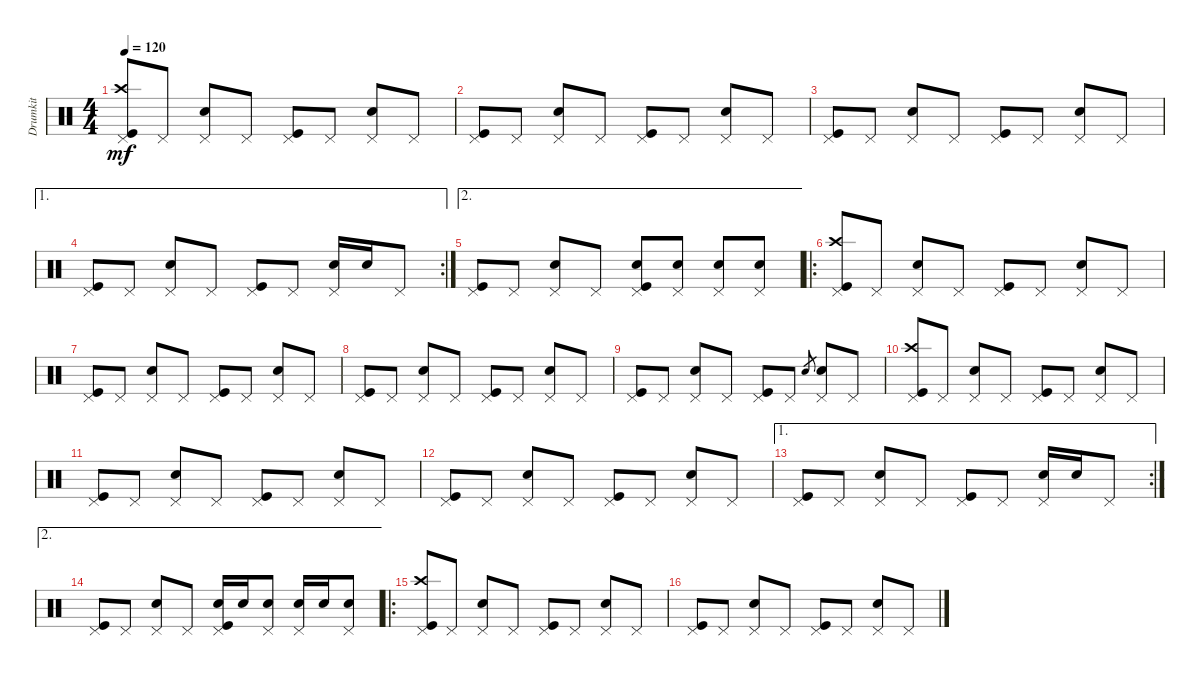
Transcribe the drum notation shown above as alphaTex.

\track ("Drumkit" "Drumkit") {instrument percussion}
\staff {score}
\articulation defaults
\ts (4 4)
\tempo 120
\clef neutral
\ks c
("Kick (hit)" "Crash high (hit)" "Pedal Hi-Hat (hit)").8{dy mf} "Pedal Hi-Hat (hit)".8 ("Pedal Hi-Hat (hit)" "Snare (hit) 2").8 "Pedal Hi-Hat (hit)".8 ("Kick (hit)" "Pedal Hi-Hat (hit)").8 "Pedal Hi-Hat (hit)".8 ("Pedal Hi-Hat (hit)" "Snare (hit) 2").8 "Pedal Hi-Hat (hit)".8 |
("Kick (hit)" "Pedal Hi-Hat (hit)").8 "Pedal Hi-Hat (hit)".8 ("Pedal Hi-Hat (hit)" "Snare (hit) 2").8 "Pedal Hi-Hat (hit)".8 ("Kick (hit)" "Pedal Hi-Hat (hit)").8 "Pedal Hi-Hat (hit)".8 ("Pedal Hi-Hat (hit)" "Snare (hit) 2").8 "Pedal Hi-Hat (hit)".8 |
("Kick (hit)" "Pedal Hi-Hat (hit)").8 "Pedal Hi-Hat (hit)".8 ("Pedal Hi-Hat (hit)" "Snare (hit) 2").8 "Pedal Hi-Hat (hit)".8 ("Kick (hit)" "Pedal Hi-Hat (hit)").8 "Pedal Hi-Hat (hit)".8 ("Pedal Hi-Hat (hit)" "Snare (hit) 2").8 "Pedal Hi-Hat (hit)".8 |
\ae 1
\rc 2
("Kick (hit)" "Pedal Hi-Hat (hit)").8 "Pedal Hi-Hat (hit)".8 ("Pedal Hi-Hat (hit)" "Snare (hit) 2").8 "Pedal Hi-Hat (hit)".8 ("Kick (hit)" "Pedal Hi-Hat (hit)").8 "Pedal Hi-Hat (hit)".8 ("Pedal Hi-Hat (hit)" "Snare (hit) 2").16 "Snare (hit) 2".16 "Pedal Hi-Hat (hit)".8 |
\ae 2
("Kick (hit)" "Pedal Hi-Hat (hit)").8 "Pedal Hi-Hat (hit)".8 ("Pedal Hi-Hat (hit)" "Snare (hit) 2").8 "Pedal Hi-Hat (hit)".8 ("Kick (hit)" "Pedal Hi-Hat (hit)" "Snare (hit) 2").8 ("Pedal Hi-Hat (hit)" "Snare (hit) 2").8 ("Pedal Hi-Hat (hit)" "Snare (hit) 2").8 ("Pedal Hi-Hat (hit)" "Snare (hit) 2").8 |
\ro
("Kick (hit)" "Crash high (hit)" "Pedal Hi-Hat (hit)").8 "Pedal Hi-Hat (hit)".8 ("Pedal Hi-Hat (hit)" "Snare (hit) 2").8 "Pedal Hi-Hat (hit)".8 ("Kick (hit)" "Pedal Hi-Hat (hit)").8 "Pedal Hi-Hat (hit)".8 ("Pedal Hi-Hat (hit)" "Snare (hit) 2").8 "Pedal Hi-Hat (hit)".8 |
("Kick (hit)" "Pedal Hi-Hat (hit)").8 "Pedal Hi-Hat (hit)".8 ("Pedal Hi-Hat (hit)" "Snare (hit) 2").8 "Pedal Hi-Hat (hit)".8 ("Kick (hit)" "Pedal Hi-Hat (hit)").8 "Pedal Hi-Hat (hit)".8 ("Pedal Hi-Hat (hit)" "Snare (hit) 2").8 "Pedal Hi-Hat (hit)".8 |
("Kick (hit)" "Pedal Hi-Hat (hit)").8 "Pedal Hi-Hat (hit)".8 ("Pedal Hi-Hat (hit)" "Snare (hit) 2").8 "Pedal Hi-Hat (hit)".8 ("Kick (hit)" "Pedal Hi-Hat (hit)").8 "Pedal Hi-Hat (hit)".8 ("Pedal Hi-Hat (hit)" "Snare (hit) 2").8 "Pedal Hi-Hat (hit)".8 |
("Kick (hit)" "Pedal Hi-Hat (hit)").8 "Pedal Hi-Hat (hit)".8 ("Pedal Hi-Hat (hit)" "Snare (hit) 2").8 "Pedal Hi-Hat (hit)".8 ("Kick (hit)" "Pedal Hi-Hat (hit)").8 "Pedal Hi-Hat (hit)".8 "Snare (hit)".8{gr} ("Pedal Hi-Hat (hit)" "Snare (hit) 2").8 "Pedal Hi-Hat (hit)".8 |
("Kick (hit)" "Crash high (hit)" "Pedal Hi-Hat (hit)").8 "Pedal Hi-Hat (hit)".8 ("Pedal Hi-Hat (hit)" "Snare (hit) 2").8 "Pedal Hi-Hat (hit)".8 ("Kick (hit)" "Pedal Hi-Hat (hit)").8 "Pedal Hi-Hat (hit)".8 ("Pedal Hi-Hat (hit)" "Snare (hit) 2").8 "Pedal Hi-Hat (hit)".8 |
("Kick (hit)" "Pedal Hi-Hat (hit)").8 "Pedal Hi-Hat (hit)".8 ("Pedal Hi-Hat (hit)" "Snare (hit) 2").8 "Pedal Hi-Hat (hit)".8 ("Kick (hit)" "Pedal Hi-Hat (hit)").8 "Pedal Hi-Hat (hit)".8 ("Pedal Hi-Hat (hit)" "Snare (hit) 2").8 "Pedal Hi-Hat (hit)".8 |
("Kick (hit)" "Pedal Hi-Hat (hit)").8 "Pedal Hi-Hat (hit)".8 ("Pedal Hi-Hat (hit)" "Snare (hit) 2").8 "Pedal Hi-Hat (hit)".8 ("Kick (hit)" "Pedal Hi-Hat (hit)").8 "Pedal Hi-Hat (hit)".8 ("Pedal Hi-Hat (hit)" "Snare (hit) 2").8 "Pedal Hi-Hat (hit)".8 |
\ae 1
\rc 2
("Kick (hit)" "Pedal Hi-Hat (hit)").8 "Pedal Hi-Hat (hit)".8 ("Pedal Hi-Hat (hit)" "Snare (hit) 2").8 "Pedal Hi-Hat (hit)".8 ("Kick (hit)" "Pedal Hi-Hat (hit)").8 "Pedal Hi-Hat (hit)".8 ("Pedal Hi-Hat (hit)" "Snare (hit) 2").16 "Snare (hit) 2".16 "Pedal Hi-Hat (hit)".8 |
\ae 2
("Kick (hit)" "Pedal Hi-Hat (hit)").8 "Pedal Hi-Hat (hit)".8 ("Pedal Hi-Hat (hit)" "Snare (hit) 2").8 "Pedal Hi-Hat (hit)".8 ("Kick (hit)" "Pedal Hi-Hat (hit)" "Snare (hit) 2").16 "Snare (hit) 2".16 ("Pedal Hi-Hat (hit)" "Snare (hit) 2").8 ("Pedal Hi-Hat (hit)" "Snare (hit) 2").16 "Snare (hit) 2".16 ("Pedal Hi-Hat (hit)" "Snare (hit) 2").8 |
\ro
("Kick (hit)" "Crash high (hit)" "Pedal Hi-Hat (hit)").8 "Pedal Hi-Hat (hit)".8 ("Pedal Hi-Hat (hit)" "Snare (hit) 2").8 "Pedal Hi-Hat (hit)".8 ("Kick (hit)" "Pedal Hi-Hat (hit)").8 "Pedal Hi-Hat (hit)".8 ("Pedal Hi-Hat (hit)" "Snare (hit) 2").8 "Pedal Hi-Hat (hit)".8 |
("Kick (hit)" "Pedal Hi-Hat (hit)").8 "Pedal Hi-Hat (hit)".8 ("Pedal Hi-Hat (hit)" "Snare (hit) 2").8 "Pedal Hi-Hat (hit)".8 ("Kick (hit)" "Pedal Hi-Hat (hit)").8 "Pedal Hi-Hat (hit)".8 ("Pedal Hi-Hat (hit)" "Snare (hit) 2").8 "Pedal Hi-Hat (hit)".8
